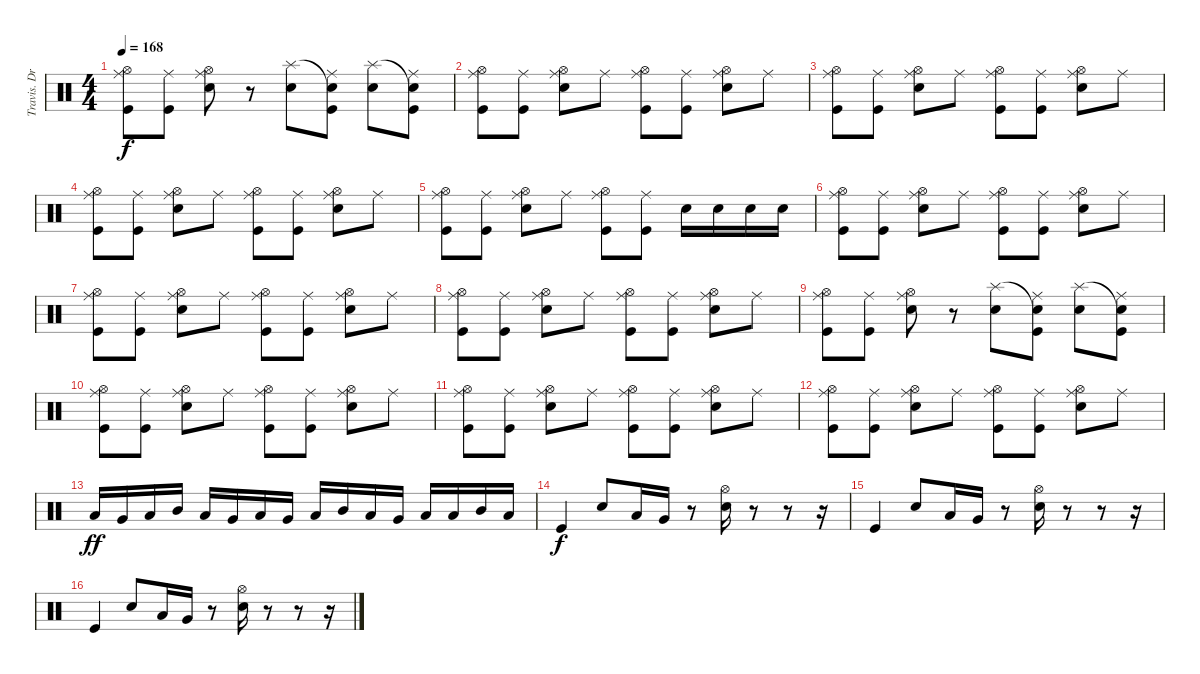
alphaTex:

\track ("Travis. Drums" "Travis. Dr") {instrument percussion}
\staff {score}
\articulation defaults
\ts (4 4)
\tempo 168
\clef neutral
\ks c
("Hi-Hat (open)" "Ride (middle)" "Kick (hit)").8{dy f} ("Ride (middle)" "Kick (hit)").8 ("Hi-Hat (open)" "Ride (middle)" "Snare (hit) 2").8 r.8 ("Splash (hit)" "Snare (hit) 2").8 ("Snare (hit)"{t} "Ride (middle)" "Kick (hit)").8 ("Splash (hit)" "Snare (hit) 2").8 ("Snare (hit)"{t} "Ride (middle)" "Kick (hit)").8 |
("Hi-Hat (open)" "Ride (middle)" "Kick (hit)").8 ("Ride (middle)" "Kick (hit)").8 ("Hi-Hat (open)" "Ride (middle)" "Snare (hit) 2").8 "Ride (middle)".8 ("Hi-Hat (open)" "Ride (middle)" "Kick (hit)").8 ("Ride (middle)" "Kick (hit)").8 ("Hi-Hat (open)" "Ride (middle)" "Snare (hit) 2").8 "Ride (middle)".8 |
("Hi-Hat (open)" "Ride (middle)" "Kick (hit)").8 ("Ride (middle)" "Kick (hit)").8 ("Hi-Hat (open)" "Ride (middle)" "Snare (hit) 2").8 "Ride (middle)".8 ("Hi-Hat (open)" "Ride (middle)" "Kick (hit)").8 ("Ride (middle)" "Kick (hit)").8 ("Hi-Hat (open)" "Ride (middle)" "Snare (hit) 2").8 "Ride (middle)".8 |
("Hi-Hat (open)" "Ride (middle)" "Kick (hit)").8 ("Ride (middle)" "Kick (hit)").8 ("Hi-Hat (open)" "Ride (middle)" "Snare (hit) 2").8 "Ride (middle)".8 ("Hi-Hat (open)" "Ride (middle)" "Kick (hit)").8 ("Ride (middle)" "Kick (hit)").8 ("Hi-Hat (open)" "Ride (middle)" "Snare (hit) 2").8 "Ride (middle)".8 |
("Hi-Hat (open)" "Ride (middle)" "Kick (hit)").8 ("Ride (middle)" "Kick (hit)").8 ("Hi-Hat (open)" "Ride (middle)" "Snare (hit) 2").8 "Ride (middle)".8 ("Hi-Hat (open)" "Ride (middle)" "Kick (hit)").8 ("Ride (middle)" "Kick (hit)").8 "Snare (hit) 2".16 "Snare (hit) 2".16 "Snare (hit) 2".16 "Snare (hit) 2".16 |
("Hi-Hat (open)" "Ride (middle)" "Kick (hit)").8 ("Ride (middle)" "Kick (hit)").8 ("Hi-Hat (open)" "Ride (middle)" "Snare (hit) 2").8 "Ride (middle)".8 ("Hi-Hat (open)" "Ride (middle)" "Kick (hit)").8 ("Ride (middle)" "Kick (hit)").8 ("Hi-Hat (open)" "Ride (middle)" "Snare (hit) 2").8 "Ride (middle)".8 |
("Hi-Hat (open)" "Ride (middle)" "Kick (hit)").8 ("Ride (middle)" "Kick (hit)").8 ("Hi-Hat (open)" "Ride (middle)" "Snare (hit) 2").8 "Ride (middle)".8 ("Hi-Hat (open)" "Ride (middle)" "Kick (hit)").8 ("Ride (middle)" "Kick (hit)").8 ("Hi-Hat (open)" "Ride (middle)" "Snare (hit) 2").8 "Ride (middle)".8 |
("Hi-Hat (open)" "Ride (middle)" "Kick (hit)").8 ("Ride (middle)" "Kick (hit)").8 ("Hi-Hat (open)" "Ride (middle)" "Snare (hit) 2").8 "Ride (middle)".8 ("Hi-Hat (open)" "Ride (middle)" "Kick (hit)").8 ("Ride (middle)" "Kick (hit)").8 ("Hi-Hat (open)" "Ride (middle)" "Snare (hit) 2").8 "Ride (middle)".8 |
("Hi-Hat (open)" "Ride (middle)" "Kick (hit)").8 ("Ride (middle)" "Kick (hit)").8 ("Hi-Hat (open)" "Ride (middle)" "Snare (hit) 2").8 r.8 ("Splash (hit)" "Snare (hit) 2").8 ("Snare (hit)"{t} "Ride (middle)" "Kick (hit)").8 ("Splash (hit)" "Snare (hit) 2").8 ("Snare (hit)"{t} "Ride (middle)" "Kick (hit)").8 |
("Hi-Hat (open)" "Ride (middle)" "Kick (hit)").8 ("Ride (middle)" "Kick (hit)").8 ("Hi-Hat (open)" "Ride (middle)" "Snare (hit) 2").8 "Ride (middle)".8 ("Hi-Hat (open)" "Ride (middle)" "Kick (hit)").8 ("Ride (middle)" "Kick (hit)").8 ("Hi-Hat (open)" "Ride (middle)" "Snare (hit) 2").8 "Ride (middle)".8 |
("Hi-Hat (open)" "Ride (middle)" "Kick (hit)").8 ("Ride (middle)" "Kick (hit)").8 ("Hi-Hat (open)" "Ride (middle)" "Snare (hit) 2").8 "Ride (middle)".8 ("Hi-Hat (open)" "Ride (middle)" "Kick (hit)").8 ("Ride (middle)" "Kick (hit)").8 ("Hi-Hat (open)" "Ride (middle)" "Snare (hit) 2").8 "Ride (middle)".8 |
("Hi-Hat (open)" "Ride (middle)" "Kick (hit)").8 ("Ride (middle)" "Kick (hit)").8 ("Hi-Hat (open)" "Ride (middle)" "Snare (hit) 2").8 "Ride (middle)".8 ("Hi-Hat (open)" "Ride (middle)" "Kick (hit)").8 ("Ride (middle)" "Kick (hit)").8 ("Hi-Hat (open)" "Ride (middle)" "Snare (hit) 2").8 "Ride (middle)".8 |
"Low Floor Tom (hit)".16{dy ff} "Very Low Tom (hit)".16 "Low Tom (hit)".16 "Mid Tom (hit)".16 "Low Tom (hit)".16 "Very Low Tom (hit)".16 "Low Floor Tom (hit)".16 "Very Low Tom (hit)".16 "Low Tom (hit)".16 "Mid Tom (hit)".16 "Low Tom (hit)".16 "Very Low Tom (hit)".16 "Low Floor Tom (hit)".16 "Low Tom (hit)".16 "Mid Tom (hit)".16 "Low Tom (hit)".16 |
"Kick (hit)".4{dy f} "Snare (hit) 2".8 "Low Tom (hit)".16 "Very Low Tom (hit)".16 r.8 ("Hi-Hat (open)" "Snare (hit) 2").16 r.8 r.8 r.16 |
"Kick (hit)".4 "Snare (hit) 2".8 "Low Tom (hit)".16 "Very Low Tom (hit)".16 r.8 ("Hi-Hat (open)" "Snare (hit) 2").16 r.8 r.8 r.16 |
"Kick (hit)".4 "Snare (hit) 2".8 "Low Tom (hit)".16 "Very Low Tom (hit)".16 r.8 ("Hi-Hat (open)" "Snare (hit) 2").16 r.8 r.8 r.16
